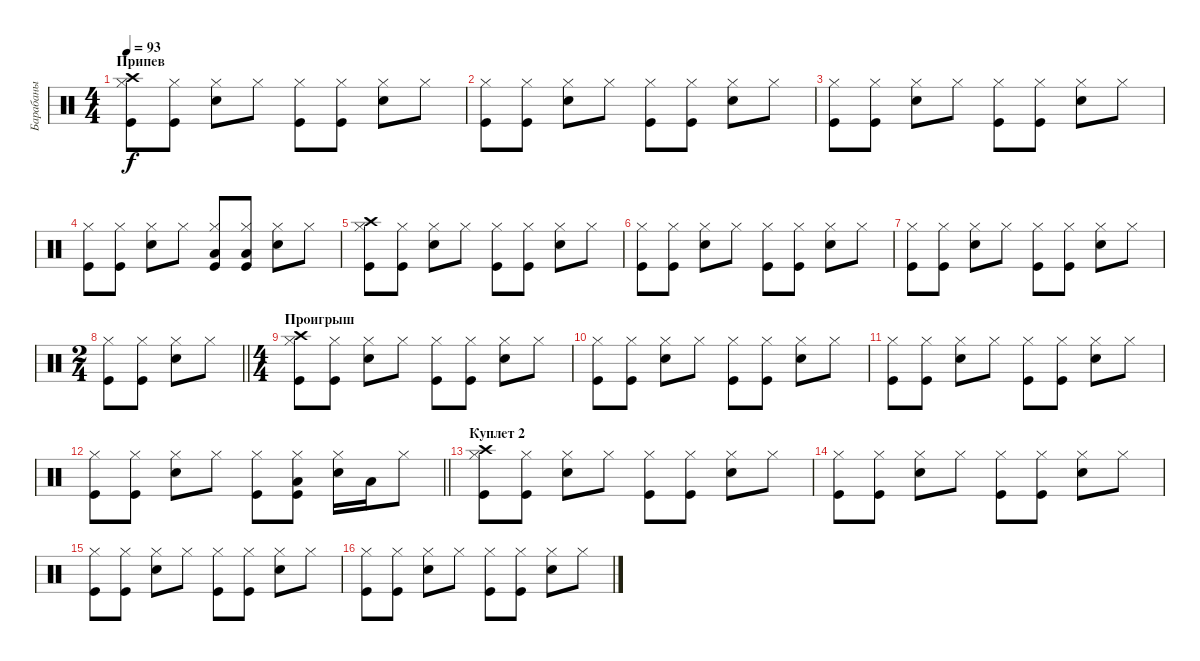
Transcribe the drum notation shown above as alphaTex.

\track ("Барабаны" "Барабаны") {instrument percussion}
\staff {score}
\articulation defaults
\ts (4 4)
\section ("" "Припев")
\tempo 93
\clef neutral
\ks c
("Kick (hit)" "Hi-Hat (closed)" "Crash high (hit)").8{dy f} ("Kick (hit)" "Hi-Hat (closed)").8 ("Snare (hit) 2" "Hi-Hat (closed)").8 "Hi-Hat (closed)".8 ("Kick (hit)" "Hi-Hat (closed)").8 ("Kick (hit)" "Hi-Hat (closed)").8 ("Snare (hit) 2" "Hi-Hat (closed)").8 "Hi-Hat (closed)".8 |
("Kick (hit)" "Hi-Hat (closed)").8 ("Kick (hit)" "Hi-Hat (closed)").8 ("Snare (hit) 2" "Hi-Hat (closed)").8 "Hi-Hat (closed)".8 ("Kick (hit)" "Hi-Hat (closed)").8 ("Kick (hit)" "Hi-Hat (closed)").8 ("Snare (hit) 2" "Hi-Hat (closed)").8 "Hi-Hat (closed)".8 |
("Kick (hit)" "Hi-Hat (closed)").8 ("Kick (hit)" "Hi-Hat (closed)").8 ("Snare (hit) 2" "Hi-Hat (closed)").8 "Hi-Hat (closed)".8 ("Kick (hit)" "Hi-Hat (closed)").8 ("Kick (hit)" "Hi-Hat (closed)").8 ("Snare (hit) 2" "Hi-Hat (closed)").8 "Hi-Hat (closed)".8 |
("Kick (hit)" "Hi-Hat (closed)").8 ("Kick (hit)" "Hi-Hat (closed)").8 ("Snare (hit) 2" "Hi-Hat (closed)").8 "Hi-Hat (closed)".8 ("Kick (hit)" "Hi-Hat (closed)" "Low Floor Tom (hit)").8 ("Kick (hit)" "Hi-Hat (closed)" "Low Floor Tom (hit)").8 ("Snare (hit) 2" "Hi-Hat (closed)").8 "Hi-Hat (closed)".8 |
("Kick (hit)" "Hi-Hat (closed)" "Crash high (hit)").8 ("Kick (hit)" "Hi-Hat (closed)").8 ("Snare (hit) 2" "Hi-Hat (closed)").8 "Hi-Hat (closed)".8 ("Kick (hit)" "Hi-Hat (closed)").8 ("Kick (hit)" "Hi-Hat (closed)").8 ("Snare (hit) 2" "Hi-Hat (closed)").8 "Hi-Hat (closed)".8 |
("Kick (hit)" "Hi-Hat (closed)").8 ("Kick (hit)" "Hi-Hat (closed)").8 ("Snare (hit) 2" "Hi-Hat (closed)").8 "Hi-Hat (closed)".8 ("Kick (hit)" "Hi-Hat (closed)").8 ("Kick (hit)" "Hi-Hat (closed)").8 ("Snare (hit) 2" "Hi-Hat (closed)").8 "Hi-Hat (closed)".8 |
("Kick (hit)" "Hi-Hat (closed)").8 ("Kick (hit)" "Hi-Hat (closed)").8 ("Snare (hit) 2" "Hi-Hat (closed)").8 "Hi-Hat (closed)".8 ("Kick (hit)" "Hi-Hat (closed)").8 ("Kick (hit)" "Hi-Hat (closed)").8 ("Snare (hit) 2" "Hi-Hat (closed)").8 "Hi-Hat (closed)".8 |
\ts (2 4)
\barLineRight lightlight
("Kick (hit)" "Hi-Hat (closed)").8 ("Kick (hit)" "Hi-Hat (closed)").8 ("Snare (hit) 2" "Hi-Hat (closed)").8 "Hi-Hat (closed)".8 |
\ts (4 4)
\section ("" "Проигрыш")
("Kick (hit)" "Hi-Hat (closed)" "Crash high (hit)").8 ("Kick (hit)" "Hi-Hat (closed)").8 ("Snare (hit) 2" "Hi-Hat (closed)").8 "Hi-Hat (closed)".8 ("Kick (hit)" "Hi-Hat (closed)").8 ("Kick (hit)" "Hi-Hat (closed)").8 ("Snare (hit) 2" "Hi-Hat (closed)").8 "Hi-Hat (closed)".8 |
("Kick (hit)" "Hi-Hat (closed)").8 ("Kick (hit)" "Hi-Hat (closed)").8 ("Snare (hit) 2" "Hi-Hat (closed)").8 "Hi-Hat (closed)".8 ("Kick (hit)" "Hi-Hat (closed)").8 ("Kick (hit)" "Hi-Hat (closed)").8 ("Snare (hit) 2" "Hi-Hat (closed)").8 "Hi-Hat (closed)".8 |
("Kick (hit)" "Hi-Hat (closed)").8 ("Kick (hit)" "Hi-Hat (closed)").8 ("Snare (hit) 2" "Hi-Hat (closed)").8 "Hi-Hat (closed)".8 ("Kick (hit)" "Hi-Hat (closed)").8 ("Kick (hit)" "Hi-Hat (closed)").8 ("Snare (hit) 2" "Hi-Hat (closed)").8 "Hi-Hat (closed)".8 |
\barLineRight lightlight
("Kick (hit)" "Hi-Hat (closed)").8 ("Kick (hit)" "Hi-Hat (closed)").8 ("Snare (hit) 2" "Hi-Hat (closed)").8 "Hi-Hat (closed)".8 ("Kick (hit)" "Hi-Hat (closed)").8 ("Kick (hit)" "Hi-Hat (closed)" "Low Floor Tom (hit)").8 ("Snare (hit) 2" "Hi-Hat (closed)").16 "Low Floor Tom (hit)".16 "Hi-Hat (closed)".8 |
\section ("" "Куплет 2")
("Kick (hit)" "Hi-Hat (closed)" "Crash high (hit)").8 ("Kick (hit)" "Hi-Hat (closed)").8 ("Snare (hit) 2" "Hi-Hat (closed)").8 "Hi-Hat (closed)".8 ("Kick (hit)" "Hi-Hat (closed)").8 ("Kick (hit)" "Hi-Hat (closed)").8 ("Snare (hit) 2" "Hi-Hat (closed)").8 "Hi-Hat (closed)".8 |
("Kick (hit)" "Hi-Hat (closed)").8 ("Kick (hit)" "Hi-Hat (closed)").8 ("Snare (hit) 2" "Hi-Hat (closed)").8 "Hi-Hat (closed)".8 ("Kick (hit)" "Hi-Hat (closed)").8 ("Kick (hit)" "Hi-Hat (closed)").8 ("Snare (hit) 2" "Hi-Hat (closed)").8 "Hi-Hat (closed)".8 |
("Kick (hit)" "Hi-Hat (closed)").8 ("Kick (hit)" "Hi-Hat (closed)").8 ("Snare (hit) 2" "Hi-Hat (closed)").8 "Hi-Hat (closed)".8 ("Kick (hit)" "Hi-Hat (closed)").8 ("Kick (hit)" "Hi-Hat (closed)").8 ("Snare (hit) 2" "Hi-Hat (closed)").8 "Hi-Hat (closed)".8 |
("Kick (hit)" "Hi-Hat (closed)").8 ("Kick (hit)" "Hi-Hat (closed)").8 ("Snare (hit) 2" "Hi-Hat (closed)").8 "Hi-Hat (closed)".8 ("Kick (hit)" "Hi-Hat (closed)").8 ("Kick (hit)" "Hi-Hat (closed)").8 ("Snare (hit) 2" "Hi-Hat (closed)").8 "Hi-Hat (closed)".8
